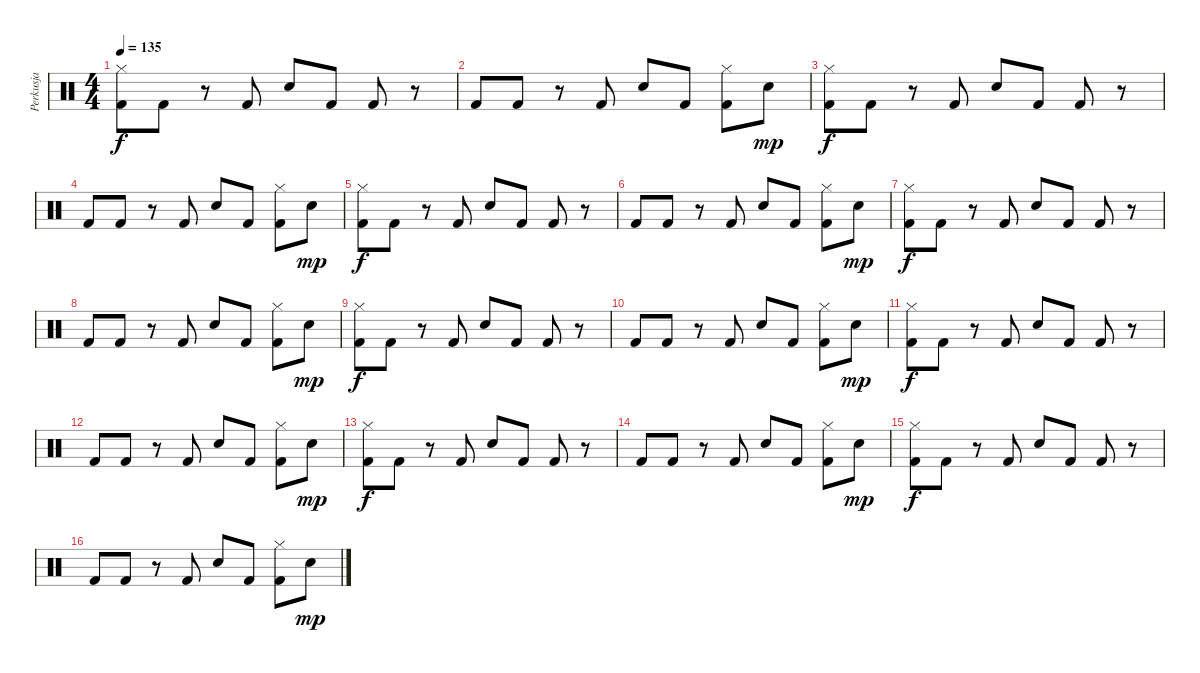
\track ("Perkusja" "Perkusja") {instrument percussion}
\staff {score}
\articulation defaults
\ts (4 4)
\tempo 135
\clef neutral
\ks c
("Hi-Hat (closed)" "Kick (hit) 2").8{dy f} "Kick (hit) 2".8 r.8 "Kick (hit) 2".8 "Snare (hit) 2".8 "Kick (hit) 2".8 "Kick (hit) 2".8 r.8 |
"Kick (hit) 2".8 "Kick (hit) 2".8 r.8 "Kick (hit) 2".8 "Snare (hit) 2".8 "Kick (hit) 2".8 ("Hi-Hat (closed)" "Kick (hit) 2").8 "Snare (hit) 2".8{dy mp} |
("Hi-Hat (closed)" "Kick (hit) 2").8{dy f} "Kick (hit) 2".8 r.8 "Kick (hit) 2".8 "Snare (hit) 2".8 "Kick (hit) 2".8 "Kick (hit) 2".8 r.8 |
"Kick (hit) 2".8 "Kick (hit) 2".8 r.8 "Kick (hit) 2".8 "Snare (hit) 2".8 "Kick (hit) 2".8 ("Hi-Hat (closed)" "Kick (hit) 2").8 "Snare (hit) 2".8{dy mp} |
("Hi-Hat (closed)" "Kick (hit) 2").8{dy f} "Kick (hit) 2".8 r.8 "Kick (hit) 2".8 "Snare (hit) 2".8 "Kick (hit) 2".8 "Kick (hit) 2".8 r.8 |
"Kick (hit) 2".8 "Kick (hit) 2".8 r.8 "Kick (hit) 2".8 "Snare (hit) 2".8 "Kick (hit) 2".8 ("Hi-Hat (closed)" "Kick (hit) 2").8 "Snare (hit) 2".8{dy mp} |
("Hi-Hat (closed)" "Kick (hit) 2").8{dy f} "Kick (hit) 2".8 r.8 "Kick (hit) 2".8 "Snare (hit) 2".8 "Kick (hit) 2".8 "Kick (hit) 2".8 r.8 |
"Kick (hit) 2".8 "Kick (hit) 2".8 r.8 "Kick (hit) 2".8 "Snare (hit) 2".8 "Kick (hit) 2".8 ("Hi-Hat (closed)" "Kick (hit) 2").8 "Snare (hit) 2".8{dy mp} |
("Hi-Hat (closed)" "Kick (hit) 2").8{dy f} "Kick (hit) 2".8 r.8 "Kick (hit) 2".8 "Snare (hit) 2".8 "Kick (hit) 2".8 "Kick (hit) 2".8 r.8 |
"Kick (hit) 2".8 "Kick (hit) 2".8 r.8 "Kick (hit) 2".8 "Snare (hit) 2".8 "Kick (hit) 2".8 ("Hi-Hat (closed)" "Kick (hit) 2").8 "Snare (hit) 2".8{dy mp} |
("Hi-Hat (closed)" "Kick (hit) 2").8{dy f} "Kick (hit) 2".8 r.8 "Kick (hit) 2".8 "Snare (hit) 2".8 "Kick (hit) 2".8 "Kick (hit) 2".8 r.8 |
"Kick (hit) 2".8 "Kick (hit) 2".8 r.8 "Kick (hit) 2".8 "Snare (hit) 2".8 "Kick (hit) 2".8 ("Hi-Hat (closed)" "Kick (hit) 2").8 "Snare (hit) 2".8{dy mp} |
("Hi-Hat (closed)" "Kick (hit) 2").8{dy f} "Kick (hit) 2".8 r.8 "Kick (hit) 2".8 "Snare (hit) 2".8 "Kick (hit) 2".8 "Kick (hit) 2".8 r.8 |
"Kick (hit) 2".8 "Kick (hit) 2".8 r.8 "Kick (hit) 2".8 "Snare (hit) 2".8 "Kick (hit) 2".8 ("Hi-Hat (closed)" "Kick (hit) 2").8 "Snare (hit) 2".8{dy mp} |
("Hi-Hat (closed)" "Kick (hit) 2").8{dy f} "Kick (hit) 2".8 r.8 "Kick (hit) 2".8 "Snare (hit) 2".8 "Kick (hit) 2".8 "Kick (hit) 2".8 r.8 |
"Kick (hit) 2".8 "Kick (hit) 2".8 r.8 "Kick (hit) 2".8 "Snare (hit) 2".8 "Kick (hit) 2".8 ("Hi-Hat (closed)" "Kick (hit) 2").8 "Snare (hit) 2".8{dy mp}
